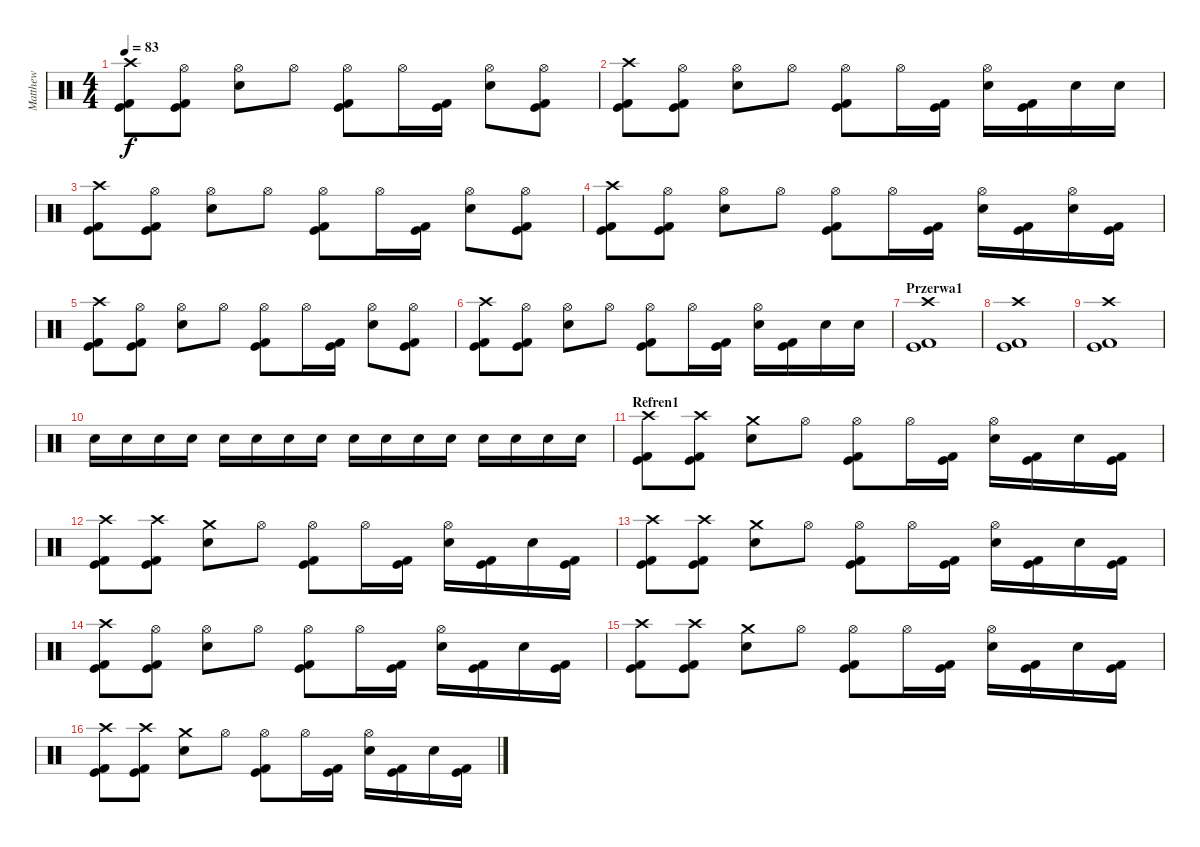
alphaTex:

\track ("Matthew" "Matthew") {instrument percussion}
\staff {score}
\articulation defaults
\ts (4 4)
\tempo 83
\clef neutral
\ks c
("Kick (hit) 2" "Kick (hit)" "Crash high (hit)").8{dy f} ("Kick (hit) 2" "Kick (hit)" "Hi-Hat (open)").8 ("Snare (hit) 2" "Hi-Hat (open)").8 "Hi-Hat (open)".8 ("Hi-Hat (open)" "Kick (hit) 2" "Kick (hit)").8 "Hi-Hat (open)".16 ("Kick (hit) 2" "Kick (hit)").16 ("Snare (hit) 2" "Hi-Hat (open)").8 ("Kick (hit) 2" "Kick (hit)" "Hi-Hat (open)").8 |
("Kick (hit) 2" "Kick (hit)" "Crash high (hit)").8 ("Kick (hit) 2" "Kick (hit)" "Hi-Hat (open)").8 ("Snare (hit) 2" "Hi-Hat (open)").8 "Hi-Hat (open)".8 ("Hi-Hat (open)" "Kick (hit) 2" "Kick (hit)").8 "Hi-Hat (open)".16 ("Kick (hit) 2" "Kick (hit)").16 ("Snare (hit) 2" "Hi-Hat (open)").16 ("Kick (hit) 2" "Kick (hit)").16 "Snare (hit) 2".16 "Snare (hit) 2".16 |
("Kick (hit) 2" "Kick (hit)" "Crash high (hit)").8 ("Kick (hit) 2" "Kick (hit)" "Hi-Hat (open)").8 ("Snare (hit) 2" "Hi-Hat (open)").8 "Hi-Hat (open)".8 ("Hi-Hat (open)" "Kick (hit) 2" "Kick (hit)").8 "Hi-Hat (open)".16 ("Kick (hit) 2" "Kick (hit)").16 ("Snare (hit) 2" "Hi-Hat (open)").8 ("Kick (hit) 2" "Kick (hit)" "Hi-Hat (open)").8 |
("Kick (hit) 2" "Kick (hit)" "Crash high (hit)").8 ("Kick (hit) 2" "Kick (hit)" "Hi-Hat (open)").8 ("Snare (hit) 2" "Hi-Hat (open)").8 "Hi-Hat (open)".8 ("Hi-Hat (open)" "Kick (hit) 2" "Kick (hit)").8 "Hi-Hat (open)".16 ("Kick (hit) 2" "Kick (hit)").16 ("Snare (hit) 2" "Hi-Hat (open)").16 ("Kick (hit) 2" "Kick (hit)").16 ("Snare (hit) 2" "Hi-Hat (open)").16 ("Kick (hit) 2" "Kick (hit)").16 |
("Kick (hit) 2" "Kick (hit)" "Crash high (hit)").8 ("Kick (hit) 2" "Kick (hit)" "Hi-Hat (open)").8 ("Snare (hit) 2" "Hi-Hat (open)").8 "Hi-Hat (open)".8 ("Hi-Hat (open)" "Kick (hit) 2" "Kick (hit)").8 "Hi-Hat (open)".16 ("Kick (hit) 2" "Kick (hit)").16 ("Snare (hit) 2" "Hi-Hat (open)").8 ("Kick (hit) 2" "Kick (hit)" "Hi-Hat (open)").8 |
("Kick (hit) 2" "Kick (hit)" "Crash high (hit)").8 ("Kick (hit) 2" "Kick (hit)" "Hi-Hat (open)").8 ("Snare (hit) 2" "Hi-Hat (open)").8 "Hi-Hat (open)".8 ("Hi-Hat (open)" "Kick (hit) 2" "Kick (hit)").8 "Hi-Hat (open)".16 ("Kick (hit) 2" "Kick (hit)").16 ("Snare (hit) 2" "Hi-Hat (open)").16 ("Kick (hit) 2" "Kick (hit)").16 "Snare (hit) 2".16 "Snare (hit) 2".16 |
\section ("" "Przerwa1")
("Kick (hit) 2" "Kick (hit)" "Crash high (hit)").1 |
("Kick (hit) 2" "Kick (hit)" "Crash high (hit)").1 |
("Kick (hit) 2" "Kick (hit)" "Crash high (hit)").1 |
"Snare (hit) 2".16 "Snare (hit) 2".16 "Snare (hit) 2".16 "Snare (hit) 2".16 "Snare (hit) 2".16 "Snare (hit) 2".16 "Snare (hit) 2".16 "Snare (hit) 2".16 "Snare (hit) 2".16 "Snare (hit) 2".16 "Snare (hit) 2".16 "Snare (hit) 2".16 "Snare (hit) 2".16 "Snare (hit) 2".16 "Snare (hit) 2".16 "Snare (hit) 2".16 |
\section ("" "Refren1")
("Kick (hit) 2" "Kick (hit)" "Crash high (hit)").8 ("Kick (hit)" "Kick (hit) 2" "Crash high (hit)").8 ("Snare (hit) 2" "Crash medium (hit)").8 "Hi-Hat (open)".8 ("Kick (hit) 2" "Kick (hit)" "Hi-Hat (open)").8 "Hi-Hat (open)".16 ("Kick (hit) 2" "Kick (hit)").16 ("Snare (hit) 2" "Hi-Hat (open)").16 ("Kick (hit) 2" "Kick (hit)").16 "Snare (hit) 2".16 ("Kick (hit) 2" "Kick (hit)").16 |
("Kick (hit) 2" "Kick (hit)" "Crash high (hit)").8 ("Kick (hit)" "Kick (hit) 2" "Crash high (hit)").8 ("Snare (hit) 2" "Crash medium (hit)").8 "Hi-Hat (open)".8 ("Kick (hit) 2" "Kick (hit)" "Hi-Hat (open)").8 "Hi-Hat (open)".16 ("Kick (hit) 2" "Kick (hit)").16 ("Snare (hit) 2" "Hi-Hat (open)").16 ("Kick (hit) 2" "Kick (hit)").16 "Snare (hit) 2".16 ("Kick (hit) 2" "Kick (hit)").16 |
("Kick (hit) 2" "Kick (hit)" "Crash high (hit)").8 ("Kick (hit)" "Kick (hit) 2" "Crash high (hit)").8 ("Snare (hit) 2" "Crash medium (hit)").8 "Hi-Hat (open)".8 ("Kick (hit) 2" "Kick (hit)" "Hi-Hat (open)").8 "Hi-Hat (open)".16 ("Kick (hit) 2" "Kick (hit)").16 ("Snare (hit) 2" "Hi-Hat (open)").16 ("Kick (hit) 2" "Kick (hit)").16 "Snare (hit) 2".16 ("Kick (hit) 2" "Kick (hit)").16 |
("Kick (hit) 2" "Kick (hit)" "Crash high (hit)").8 ("Kick (hit) 2" "Kick (hit)" "Hi-Hat (open)").8 ("Snare (hit) 2" "Hi-Hat (open)").8 "Hi-Hat (open)".8 ("Kick (hit)" "Kick (hit) 2" "Hi-Hat (open)").8 "Hi-Hat (open)".16 ("Kick (hit) 2" "Kick (hit)").16 ("Snare (hit) 2" "Hi-Hat (open)").16 ("Kick (hit) 2" "Kick (hit)").16 "Snare (hit) 2".16 ("Kick (hit) 2" "Kick (hit)").16 |
("Kick (hit) 2" "Kick (hit)" "Crash high (hit)").8 ("Kick (hit)" "Kick (hit) 2" "Crash high (hit)").8 ("Snare (hit) 2" "Crash medium (hit)").8 "Hi-Hat (open)".8 ("Kick (hit) 2" "Kick (hit)" "Hi-Hat (open)").8 "Hi-Hat (open)".16 ("Kick (hit) 2" "Kick (hit)").16 ("Snare (hit) 2" "Hi-Hat (open)").16 ("Kick (hit) 2" "Kick (hit)").16 "Snare (hit) 2".16 ("Kick (hit) 2" "Kick (hit)").16 |
("Kick (hit) 2" "Kick (hit)" "Crash high (hit)").8 ("Kick (hit)" "Kick (hit) 2" "Crash high (hit)").8 ("Snare (hit) 2" "Crash medium (hit)").8 "Hi-Hat (open)".8 ("Kick (hit) 2" "Kick (hit)" "Hi-Hat (open)").8 "Hi-Hat (open)".16 ("Kick (hit) 2" "Kick (hit)").16 ("Snare (hit) 2" "Hi-Hat (open)").16 ("Kick (hit) 2" "Kick (hit)").16 "Snare (hit) 2".16 ("Kick (hit) 2" "Kick (hit)").16
